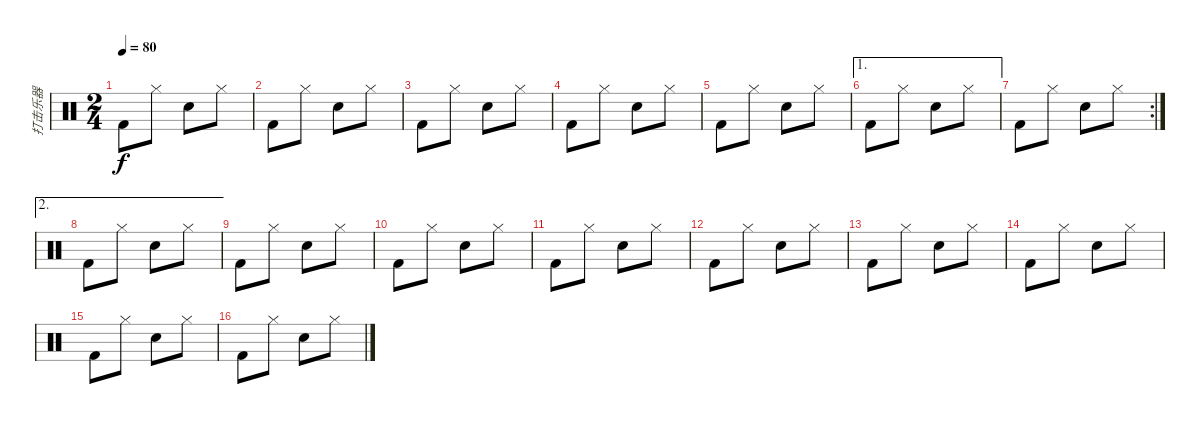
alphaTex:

\track ("打击乐器" "打击乐器") {instrument percussion}
\staff {score}
\articulation defaults
\ts (2 4)
\tempo 80
\clef neutral
\ks c "Kick (hit) 2".8{dy f} "Hi-Hat (closed)".8 "Snare (hit) 2".8 "Hi-Hat (closed)".8
|
"Kick (hit) 2".8 "Hi-Hat (closed)".8 "Snare (hit) 2".8 "Hi-Hat (closed)".8 |
"Kick (hit) 2".8 "Hi-Hat (closed)".8 "Snare (hit) 2".8 "Hi-Hat (closed)".8 |
"Kick (hit) 2".8 "Hi-Hat (closed)".8 "Snare (hit) 2".8 "Hi-Hat (closed)".8 |
"Kick (hit) 2".8 "Hi-Hat (closed)".8 "Snare (hit) 2".8 "Hi-Hat (closed)".8 |
\ae 1 "Kick (hit) 2".8 "Hi-Hat (closed)".8 "Snare (hit) 2".8 "Hi-Hat (closed)".8
|
\rc 2 "Kick (hit) 2".8 "Hi-Hat (closed)".8 "Snare (hit) 2".8 "Hi-Hat (closed)".8
|
\ae 2 "Kick (hit) 2".8 "Hi-Hat (closed)".8 "Snare (hit) 2".8 "Hi-Hat (closed)".8
|
"Kick (hit) 2".8 "Hi-Hat (closed)".8 "Snare (hit) 2".8 "Hi-Hat (closed)".8 |
"Kick (hit) 2".8 "Hi-Hat (closed)".8 "Snare (hit) 2".8 "Hi-Hat (closed)".8 |
"Kick (hit) 2".8 "Hi-Hat (closed)".8 "Snare (hit) 2".8 "Hi-Hat (closed)".8 |
"Kick (hit) 2".8 "Hi-Hat (closed)".8 "Snare (hit) 2".8 "Hi-Hat (closed)".8 |
"Kick (hit) 2".8 "Hi-Hat (closed)".8 "Snare (hit) 2".8 "Hi-Hat (closed)".8 |
"Kick (hit) 2".8 "Hi-Hat (closed)".8 "Snare (hit) 2".8 "Hi-Hat (closed)".8 |
"Kick (hit) 2".8 "Hi-Hat (closed)".8 "Snare (hit) 2".8 "Hi-Hat (closed)".8 |
"Kick (hit) 2".8 "Hi-Hat (closed)".8 "Snare (hit) 2".8 "Hi-Hat (closed)".8
